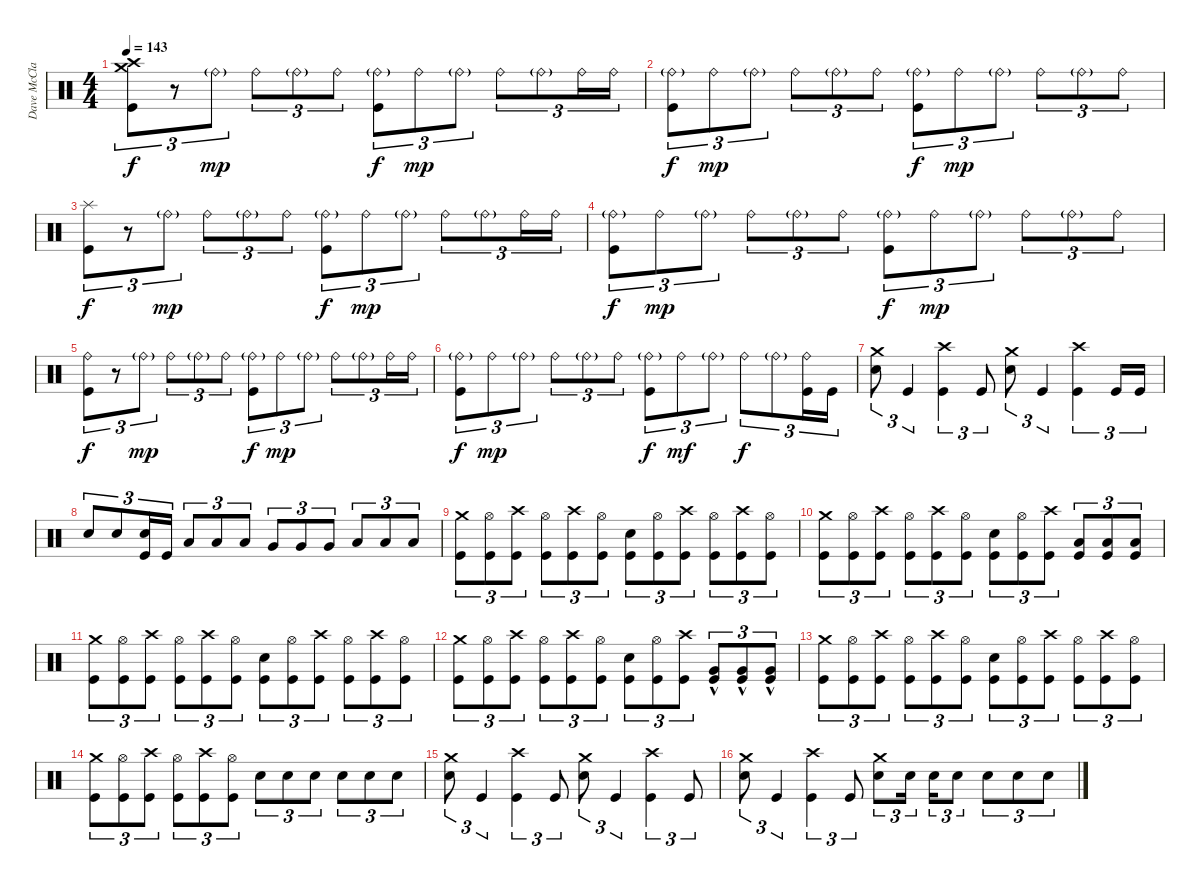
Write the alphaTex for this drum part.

\track ("Dave McClaine" "Dave McCla") {instrument percussion}
\staff {score}
\articulation defaults
\ts (4 4)
\tempo 143
\clef neutral
\ks c
("Kick (hit)" "Crash high (hit)" "Crash medium (hit)").8{tu (3 2) dy f} r.8{tu (3 2)} "Ride (bell)"{g}.8{tu (3 2) dy mp} "Ride (bell)".8{tu (3 2)} "Ride (bell)"{g}.8{tu (3 2)} "Ride (bell)".8{tu (3 2)} ("Ride (bell)"{g} "Kick (hit)").8{tu (3 2) dy f} "Ride (bell)".8{tu (3 2) dy mp} "Ride (bell)"{g}.8{tu (3 2)} "Ride (bell)".8{tu (3 2)} "Ride (bell)"{g}.8{tu (3 2)} "Ride (bell)".16{tu (3 2)} "Ride (bell)".16{tu (3 2)} |
("Kick (hit)" "Ride (bell)"{g}).8{tu (3 2) dy f} "Ride (bell)".8{tu (3 2) dy mp} "Ride (bell)"{g}.8{tu (3 2)} "Ride (bell)".8{tu (3 2)} "Ride (bell)"{g}.8{tu (3 2)} "Ride (bell)".8{tu (3 2)} ("Ride (bell)"{g} "Kick (hit)").8{tu (3 2) dy f} "Ride (bell)".8{tu (3 2) dy mp} "Ride (bell)"{g}.8{tu (3 2)} "Ride (bell)".8{tu (3 2)} "Ride (bell)"{g}.8{tu (3 2)} "Ride (bell)".8{tu (3 2)} |
("Kick (hit)" "Splash (hit)").8{tu (3 2) dy f} r.8{tu (3 2)} "Ride (bell)"{g}.8{tu (3 2) dy mp} "Ride (bell)".8{tu (3 2)} "Ride (bell)"{g}.8{tu (3 2)} "Ride (bell)".8{tu (3 2)} ("Ride (bell)"{g} "Kick (hit)").8{tu (3 2) dy f} "Ride (bell)".8{tu (3 2) dy mp} "Ride (bell)"{g}.8{tu (3 2)} "Ride (bell)".8{tu (3 2)} "Ride (bell)"{g}.8{tu (3 2)} "Ride (bell)".16{tu (3 2)} "Ride (bell)".16{tu (3 2)} |
("Kick (hit)" "Ride (bell)"{g}).8{tu (3 2) dy f} "Ride (bell)".8{tu (3 2) dy mp} "Ride (bell)"{g}.8{tu (3 2)} "Ride (bell)".8{tu (3 2)} "Ride (bell)"{g}.8{tu (3 2)} "Ride (bell)".8{tu (3 2)} ("Ride (bell)"{g} "Kick (hit)").8{tu (3 2) dy f} "Ride (bell)".8{tu (3 2) dy mp} "Ride (bell)"{g}.8{tu (3 2)} "Ride (bell)".8{tu (3 2)} "Ride (bell)"{g}.8{tu (3 2)} "Ride (bell)".8{tu (3 2)} |
("Kick (hit)" "Ride (bell)").8{tu (3 2) dy f} r.8{tu (3 2)} "Ride (bell)"{g}.8{tu (3 2) dy mp} "Ride (bell)".8{tu (3 2)} "Ride (bell)"{g}.8{tu (3 2)} "Ride (bell)".8{tu (3 2)} ("Ride (bell)"{g} "Kick (hit)").8{tu (3 2) dy f} "Ride (bell)".8{tu (3 2) dy mp} "Ride (bell)"{g}.8{tu (3 2)} "Ride (bell)".8{tu (3 2)} "Ride (bell)"{g}.8{tu (3 2)} "Ride (bell)".16{tu (3 2)} "Ride (bell)".16{tu (3 2)} |
("Kick (hit)" "Ride (bell)"{g}).8{tu (3 2) dy f} "Ride (bell)".8{tu (3 2) dy mp} "Ride (bell)"{g}.8{tu (3 2)} "Ride (bell)".8{tu (3 2)} "Ride (bell)"{g}.8{tu (3 2)} "Ride (bell)".8{tu (3 2)} ("Ride (bell)"{g} "Kick (hit)").8{tu (3 2) dy f} "Ride (bell)".8{tu (3 2) dy mf} "Ride (bell)"{g}.8{tu (3 2)} "Ride (bell)".8{tu (3 2) dy f} "Ride (bell)"{g}.8{tu (3 2)} ("Ride (bell)" "Kick (hit)").16{tu (3 2)} "Kick (hit)".16{tu (3 2)} |
("Snare (hit) 2" "Crash medium (hit)").8{tu (3 2)} "Kick (hit)".4{tu (3 2)} ("Kick (hit)" "Crash high (hit)").4{tu (3 2)} "Kick (hit)".8{tu (3 2)} ("Snare (hit) 2" "Crash medium (hit)").8{tu (3 2)} "Kick (hit)".4{tu (3 2)} ("Kick (hit)" "Crash high (hit)").4{tu (3 2)} "Kick (hit)".16{tu (3 2)} "Kick (hit)".16{tu (3 2)} |
"Snare (hit) 2".8{tu (3 2)} "Snare (hit) 2".8{tu (3 2)} ("Snare (hit) 2" "Kick (hit)").16{tu (3 2)} "Kick (hit)".16{tu (3 2)} "Low Tom (hit)".8{tu (3 2)} "Low Tom (hit)".8{tu (3 2)} "Low Tom (hit)".8{tu (3 2)} "Very Low Tom (hit)".8{tu (3 2)} "Very Low Tom (hit)".8{tu (3 2)} "Very Low Tom (hit)".8{tu (3 2)} "Low Floor Tom (hit)".8{tu (3 2)} "Low Floor Tom (hit)".8{tu (3 2)} "Low Floor Tom (hit)".8{tu (3 2)} |
("Kick (hit)" "Crash medium (hit)").8{tu (3 2)} ("Kick (hit)" "Hi-Hat (open)").8{tu (3 2)} ("Kick (hit)" "Crash high (hit)").8{tu (3 2)} ("Kick (hit)" "Hi-Hat (open)").8{tu (3 2)} ("Kick (hit)" "Crash high (hit)").8{tu (3 2)} ("Kick (hit)" "Hi-Hat (open)").8{tu (3 2)} ("Kick (hit)" "Snare (hit) 2").8{tu (3 2)} ("Kick (hit)" "Hi-Hat (open)").8{tu (3 2)} ("Kick (hit)" "Crash high (hit)").8{tu (3 2)} ("Kick (hit)" "Hi-Hat (open)").8{tu (3 2)} ("Kick (hit)" "Crash high (hit)").8{tu (3 2)} ("Kick (hit)" "Hi-Hat (open)").8{tu (3 2)} |
("Kick (hit)" "Crash medium (hit)").8{tu (3 2)} ("Kick (hit)" "Hi-Hat (open)").8{tu (3 2)} ("Kick (hit)" "Crash high (hit)").8{tu (3 2)} ("Kick (hit)" "Hi-Hat (open)").8{tu (3 2)} ("Kick (hit)" "Crash high (hit)").8{tu (3 2)} ("Kick (hit)" "Hi-Hat (open)").8{tu (3 2)} ("Kick (hit)" "Snare (hit) 2").8{tu (3 2)} ("Kick (hit)" "Hi-Hat (open)").8{tu (3 2)} ("Kick (hit)" "Crash high (hit)").8{tu (3 2)} ("Kick (hit)" "Low Tom (hit)").8{tu (3 2)} ("Kick (hit)" "Low Tom (hit)").8{tu (3 2)} ("Kick (hit)" "Low Tom (hit)").8{tu (3 2)} |
("Kick (hit)" "Crash medium (hit)").8{tu (3 2)} ("Kick (hit)" "Hi-Hat (open)").8{tu (3 2)} ("Kick (hit)" "Crash high (hit)").8{tu (3 2)} ("Kick (hit)" "Hi-Hat (open)").8{tu (3 2)} ("Kick (hit)" "Crash high (hit)").8{tu (3 2)} ("Kick (hit)" "Hi-Hat (open)").8{tu (3 2)} ("Kick (hit)" "Snare (hit) 2").8{tu (3 2)} ("Kick (hit)" "Hi-Hat (open)").8{tu (3 2)} ("Kick (hit)" "Crash high (hit)").8{tu (3 2)} ("Kick (hit)" "Hi-Hat (open)").8{tu (3 2)} ("Kick (hit)" "Crash high (hit)").8{tu (3 2)} ("Kick (hit)" "Hi-Hat (open)").8{tu (3 2)} |
("Kick (hit)" "Crash medium (hit)").8{tu (3 2)} ("Kick (hit)" "Hi-Hat (open)").8{tu (3 2)} ("Kick (hit)" "Crash high (hit)").8{tu (3 2)} ("Kick (hit)" "Hi-Hat (open)").8{tu (3 2)} ("Kick (hit)" "Crash high (hit)").8{tu (3 2)} ("Kick (hit)" "Hi-Hat (open)").8{tu (3 2)} ("Kick (hit)" "Snare (hit) 2").8{tu (3 2)} ("Kick (hit)" "Hi-Hat (open)").8{tu (3 2)} ("Kick (hit)" "Crash high (hit)").8{tu (3 2)} ("Kick (hit)" "Very Low Tom (hit)"{hac}).8{tu (3 2)} ("Kick (hit)" "Very Low Tom (hit)"{hac}).8{tu (3 2)} ("Kick (hit)" "Very Low Tom (hit)"{hac}).8{tu (3 2)} |
("Kick (hit)" "Crash medium (hit)").8{tu (3 2)} ("Kick (hit)" "Hi-Hat (open)").8{tu (3 2)} ("Kick (hit)" "Crash high (hit)").8{tu (3 2)} ("Kick (hit)" "Hi-Hat (open)").8{tu (3 2)} ("Kick (hit)" "Crash high (hit)").8{tu (3 2)} ("Kick (hit)" "Hi-Hat (open)").8{tu (3 2)} ("Kick (hit)" "Snare (hit) 2").8{tu (3 2)} ("Kick (hit)" "Hi-Hat (open)").8{tu (3 2)} ("Kick (hit)" "Crash high (hit)").8{tu (3 2)} ("Kick (hit)" "Hi-Hat (open)").8{tu (3 2)} ("Kick (hit)" "Crash high (hit)").8{tu (3 2)} ("Kick (hit)" "Hi-Hat (open)").8{tu (3 2)} |
("Kick (hit)" "Crash medium (hit)").8{tu (3 2)} ("Kick (hit)" "Hi-Hat (open)").8{tu (3 2)} ("Kick (hit)" "Crash high (hit)").8{tu (3 2)} ("Kick (hit)" "Hi-Hat (open)").8{tu (3 2)} ("Kick (hit)" "Crash high (hit)").8{tu (3 2)} ("Kick (hit)" "Hi-Hat (open)").8{tu (3 2)} "Snare (hit) 2".8{tu (3 2)} "Snare (hit) 2".8{tu (3 2)} "Snare (hit) 2".8{tu (3 2)} "Snare (hit) 2".8{tu (3 2)} "Snare (hit) 2".8{tu (3 2)} "Snare (hit) 2".8{tu (3 2)} |
("Snare (hit) 2" "Crash medium (hit)").8{tu (3 2)} "Kick (hit)".4{tu (3 2)} ("Kick (hit)" "Crash high (hit)").4{tu (3 2)} "Kick (hit)".8{tu (3 2)} ("Snare (hit) 2" "Crash medium (hit)").8{tu (3 2)} "Kick (hit)".4{tu (3 2)} ("Kick (hit)" "Crash high (hit)").4{tu (3 2)} "Kick (hit)".8{tu (3 2)} |
("Snare (hit) 2" "Crash medium (hit)").8{tu (3 2)} "Kick (hit)".4{tu (3 2)} ("Kick (hit)" "Crash high (hit)").4{tu (3 2)} "Kick (hit)".8{tu (3 2)} ("Snare (hit) 2" "Crash medium (hit)").8{tu (3 2)} "Snare (hit) 2".16{tu (3 2)} "Snare (hit) 2".16{tu (3 2)} "Snare (hit) 2".8{tu (3 2)} "Snare (hit) 2".8{tu (3 2)} "Snare (hit) 2".8{tu (3 2)} "Snare (hit) 2".8{tu (3 2)}
